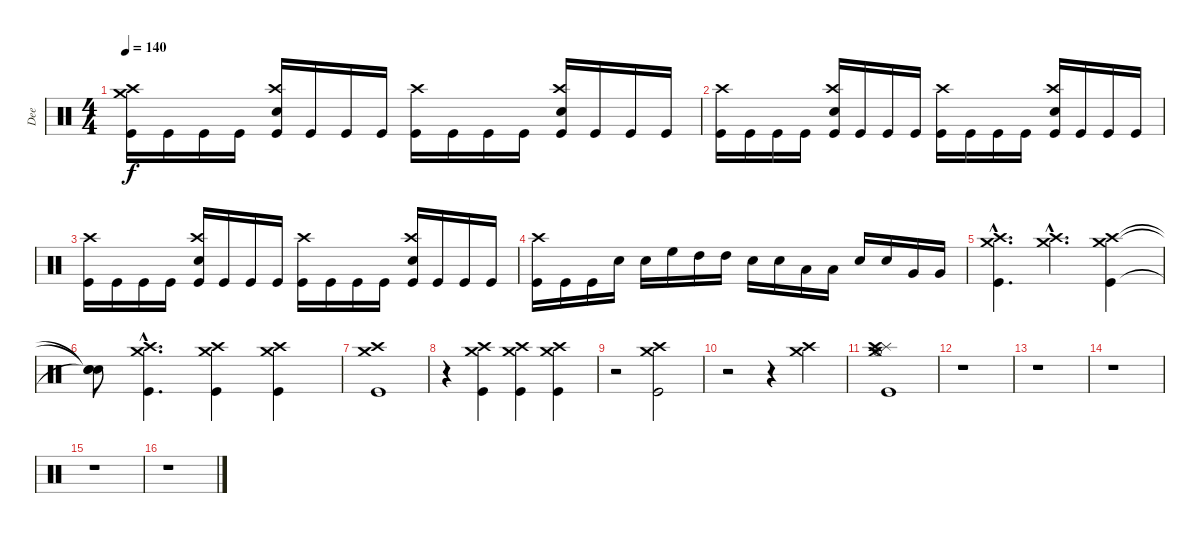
\track ("Dee" "Dee") {instrument percussion}
\staff {score}
\articulation defaults
\ts (4 4)
\tempo 140
\clef neutral
\ks c
("Kick (hit)" "Crash high (hit)" "Crash medium (hit)").16{dy f} "Kick (hit)".16 "Kick (hit)".16 "Kick (hit)".16 ("Electric Snare (hit)" "Kick (hit)" "Crash high (hit)").16 "Kick (hit)".16 "Kick (hit)".16 "Kick (hit)".16 ("Kick (hit)" "Crash high (hit)").16 "Kick (hit)".16 "Kick (hit)".16 "Kick (hit)".16 ("Electric Snare (hit)" "Kick (hit)" "Crash high (hit)").16 "Kick (hit)".16 "Kick (hit)".16 "Kick (hit)".16 |
("Kick (hit)" "Crash high (hit)").16 "Kick (hit)".16 "Kick (hit)".16 "Kick (hit)".16 ("Electric Snare (hit)" "Kick (hit)" "Crash high (hit)").16 "Kick (hit)".16 "Kick (hit)".16 "Kick (hit)".16 ("Kick (hit)" "Crash high (hit)").16 "Kick (hit)".16 "Kick (hit)".16 "Kick (hit)".16 ("Electric Snare (hit)" "Kick (hit)" "Crash high (hit)").16 "Kick (hit)".16 "Kick (hit)".16 "Kick (hit)".16 |
("Kick (hit)" "Crash high (hit)").16 "Kick (hit)".16 "Kick (hit)".16 "Kick (hit)".16 ("Electric Snare (hit)" "Kick (hit)" "Crash high (hit)").16 "Kick (hit)".16 "Kick (hit)".16 "Kick (hit)".16 ("Kick (hit)" "Crash high (hit)").16 "Kick (hit)".16 "Kick (hit)".16 "Kick (hit)".16 ("Electric Snare (hit)" "Kick (hit)" "Crash high (hit)").16 "Kick (hit)".16 "Kick (hit)".16 "Kick (hit)".16 |
("Kick (hit)" "Crash high (hit)").16 "Kick (hit)".16 "Kick (hit)".16 "Electric Snare (hit)".16 "Electric Snare (hit)".16 "High Floor Tom (hit)".16 "High Tom (hit)".16 "High Tom (hit)".16 "Electric Snare (hit)".16 "Electric Snare (hit)".16 "Low Tom (hit)".16 "Low Tom (hit)".16 "Electric Snare (hit)".16 "Electric Snare (hit)".16 "Very Low Tom (hit)".16 "Very Low Tom (hit)".16 |
("Kick (hit)"{hac} "Crash high (hit)"{hac} "Crash medium (hit)"{hac}).4{d} ("Crash high (hit)"{hac} "Crash medium (hit)"{hac}).4{d} ("Kick (hit)" "Crash high (hit)" "Crash medium (hit)").4 |
("Snare (hit)"{t} "Snare (hit)"{t} "Snare (hit)"{t}).8 ("Crash medium (hit)"{hac} "Kick (hit)"{hac} "Crash high (hit)"{hac}).4{d} ("Crash medium (hit)" "Kick (hit)" "Crash high (hit)").4 ("Crash medium (hit)" "Kick (hit)" "Crash high (hit)").4 |
("Kick (hit)" "Crash medium (hit)" "Crash high (hit)").1 |
r.4 ("Kick (hit)" "Crash high (hit)" "Crash medium (hit)").4 ("Kick (hit)" "Crash high (hit)" "Crash medium (hit)").4 ("Kick (hit)" "Crash high (hit)" "Crash medium (hit)").4 |
r.2 ("Kick (hit)" "Crash high (hit)" "Crash medium (hit)").2 |
r.2 r.4 ("Crash high (hit)" "Crash medium (hit)").4 |
("Kick (hit)" "Splash (hit)" "Crash medium (hit)" "Crash high (hit)" "Hi-Hat (open)").1 |
r.1 |
r.1 |
r.1 |
r.1 |
r.1
